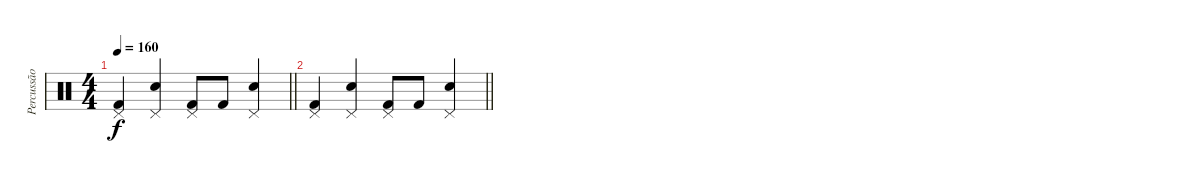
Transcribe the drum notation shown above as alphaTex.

\track ("Percussão" "Percussão") {instrument percussion}
\staff {score}
\articulation defaults
\ts (4 4)
\tempo 160
\clef neutral
\barLineRight lightlight
\ks c
("Pedal Hi-Hat (hit)" "Kick (hit) 2").4{dy f} ("Pedal Hi-Hat (hit)" "Snare (hit) 2").4 ("Pedal Hi-Hat (hit)" "Kick (hit) 2").8 "Kick (hit) 2".8 ("Pedal Hi-Hat (hit)" "Snare (hit) 2").4 |
\barLineRight lightlight
("Pedal Hi-Hat (hit)" "Kick (hit) 2").4 ("Pedal Hi-Hat (hit)" "Snare (hit) 2").4 ("Pedal Hi-Hat (hit)" "Kick (hit) 2").8 "Kick (hit) 2".8 ("Pedal Hi-Hat (hit)" "Snare (hit) 2").4
